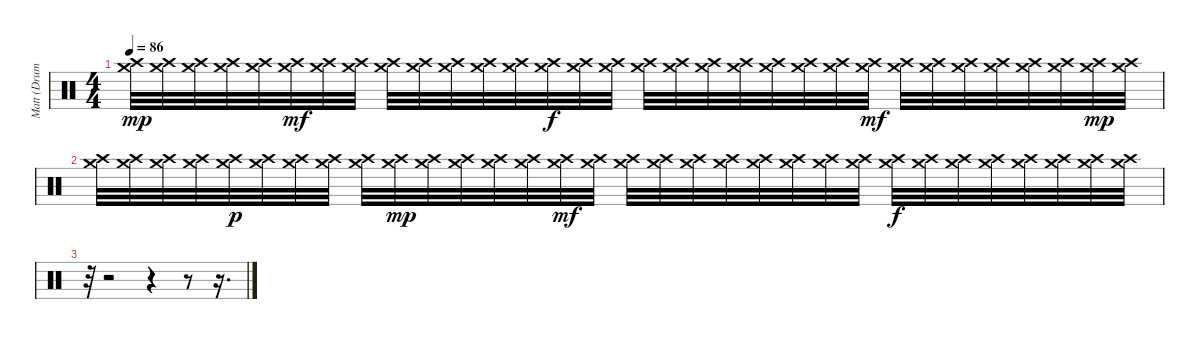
\track ("Matt (Drums)" "Matt (Drum") {instrument percussion}
\staff {score}
\articulation defaults
\ts (4 4)
\tempo 86
\clef neutral
\ks c
("Crash medium (hit)" "Crash high (hit)").32{dy mp} ("Crash medium (hit)" "Crash high (hit)").32 ("Crash medium (hit)" "Crash high (hit)").32 ("Crash medium (hit)" "Crash high (hit)").32 ("Crash medium (hit)" "Crash high (hit)").32 ("Crash medium (hit)" "Crash high (hit)").32{dy mf} ("Crash medium (hit)" "Crash high (hit)").32 ("Crash medium (hit)" "Crash high (hit)").32 ("Crash medium (hit)" "Crash high (hit)").32 ("Crash medium (hit)" "Crash high (hit)").32 ("Crash medium (hit)" "Crash high (hit)").32 ("Crash medium (hit)" "Crash high (hit)").32 ("Crash medium (hit)" "Crash high (hit)").32 ("Crash medium (hit)" "Crash high (hit)").32{dy f} ("Crash medium (hit)" "Crash high (hit)").32 ("Crash medium (hit)" "Crash high (hit)").32 ("Crash medium (hit)" "Crash high (hit)").32 ("Crash medium (hit)" "Crash high (hit)").32 ("Crash medium (hit)" "Crash high (hit)").32 ("Crash medium (hit)" "Crash high (hit)").32 ("Crash medium (hit)" "Crash high (hit)").32 ("Crash medium (hit)" "Crash high (hit)").32 ("Crash medium (hit)" "Crash high (hit)").32 ("Crash medium (hit)" "Crash high (hit)").32{dy mf} ("Crash medium (hit)" "Crash high (hit)").32 ("Crash medium (hit)" "Crash high (hit)").32 ("Crash medium (hit)" "Crash high (hit)").32 ("Crash medium (hit)" "Crash high (hit)").32 ("Crash medium (hit)" "Crash high (hit)").32 ("Crash medium (hit)" "Crash high (hit)").32 ("Crash medium (hit)" "Crash high (hit)").32{dy mp} ("Crash medium (hit)" "Crash high (hit)").32 |
("Crash medium (hit)" "Crash high (hit)").32 ("Crash medium (hit)" "Crash high (hit)").32 ("Crash medium (hit)" "Crash high (hit)").32 ("Crash medium (hit)" "Crash high (hit)").32 ("Crash medium (hit)" "Crash high (hit)").32{dy p} ("Crash medium (hit)" "Crash high (hit)").32 ("Crash medium (hit)" "Crash high (hit)").32 ("Crash medium (hit)" "Crash high (hit)").32 ("Crash medium (hit)" "Crash high (hit)").32 ("Crash medium (hit)" "Crash high (hit)").32{dy mp} ("Crash medium (hit)" "Crash high (hit)").32 ("Crash medium (hit)" "Crash high (hit)").32 ("Crash medium (hit)" "Crash high (hit)").32 ("Crash medium (hit)" "Crash high (hit)").32 ("Crash medium (hit)" "Crash high (hit)").32{dy mf} ("Crash medium (hit)" "Crash high (hit)").32 ("Crash medium (hit)" "Crash high (hit)").32 ("Crash medium (hit)" "Crash high (hit)").32 ("Crash medium (hit)" "Crash high (hit)").32 ("Crash medium (hit)" "Crash high (hit)").32 ("Crash medium (hit)" "Crash high (hit)").32 ("Crash medium (hit)" "Crash high (hit)").32 ("Crash medium (hit)" "Crash high (hit)").32 ("Crash medium (hit)" "Crash high (hit)").32 ("Crash medium (hit)" "Crash high (hit)").32{dy f} ("Crash medium (hit)" "Crash high (hit)").32 ("Crash medium (hit)" "Crash high (hit)").32 ("Crash medium (hit)" "Crash high (hit)").32 ("Crash medium (hit)" "Crash high (hit)").32 ("Crash medium (hit)" "Crash high (hit)").32 ("Crash medium (hit)" "Crash high (hit)").32 ("Crash medium (hit)" "Crash high (hit)").32 |
r.32 r.2 r.4 r.8 r.16{d}
